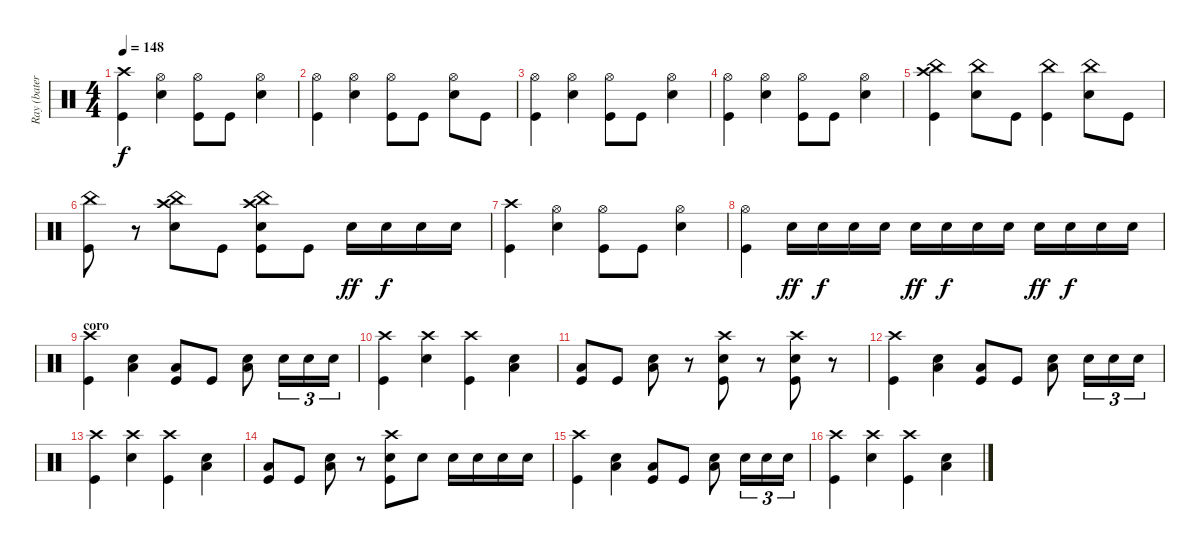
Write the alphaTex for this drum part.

\track ("Ray (batería)" "Ray (bater") {instrument percussion}
\staff {score}
\articulation defaults
\ts (4 4)
\tempo 148
\clef neutral
\ks c
("Crash high (hit)" "Kick (hit)").4{dy f} ("Hi-Hat (open)" "Snare (hit) 2").4 ("Hi-Hat (open)" "Kick (hit)").8 "Kick (hit)".8 ("Hi-Hat (open)" "Snare (hit) 2").4 |
("Hi-Hat (open)" "Kick (hit)").4 ("Hi-Hat (open)" "Snare (hit) 2").4 ("Hi-Hat (open)" "Kick (hit)").8 "Kick (hit)".8 ("Hi-Hat (open)" "Snare (hit) 2").8 "Kick (hit)".8 |
("Hi-Hat (open)" "Kick (hit)").4 ("Hi-Hat (open)" "Snare (hit) 2").4 ("Hi-Hat (open)" "Kick (hit)").8 "Kick (hit)".8 ("Hi-Hat (open)" "Snare (hit) 2").4 |
("Hi-Hat (open)" "Kick (hit)").4 ("Hi-Hat (open)" "Snare (hit) 2").4 ("Hi-Hat (open)" "Kick (hit)").8 "Kick (hit)".8 ("Hi-Hat (open)" "Snare (hit) 2").4 |
("China (hit)" "Crash high (hit)" "Kick (hit)").4 ("China (hit)" "Snare (hit) 2").8 "Kick (hit)".8 ("China (hit)" "Kick (hit)").4 ("China (hit)" "Snare (hit) 2").8 "Kick (hit)".8 |
("China (hit)" "Kick (hit)").8 r.8 ("China (hit)" "Crash high (hit)" "Snare (hit) 2").8 "Kick (hit)".8 ("China (hit)" "Crash high (hit)" "Snare (hit) 2" "Kick (hit)").8 "Kick (hit)".8 "Snare (hit) 2".16{dy ff} "Snare (hit) 2".16{dy f} "Snare (hit) 2".16 "Snare (hit) 2".16 |
("Crash high (hit)" "Kick (hit)").4 ("Hi-Hat (open)" "Snare (hit) 2").4 ("Hi-Hat (open)" "Kick (hit)").8 "Kick (hit)".8 ("Hi-Hat (open)" "Snare (hit) 2").4 |
("Hi-Hat (open)" "Kick (hit)").4 "Snare (hit) 2".16{dy ff} "Snare (hit) 2".16{dy f} "Snare (hit) 2".16 "Snare (hit) 2".16 "Snare (hit) 2".16{dy ff} "Snare (hit) 2".16{dy f} "Snare (hit) 2".16 "Snare (hit) 2".16 "Snare (hit) 2".16{dy ff} "Snare (hit) 2".16{dy f} "Snare (hit) 2".16 "Snare (hit) 2".16 |
\section ("" "coro")
("Crash high (hit)" "Kick (hit)").4 ("Snare (hit) 2" "Low Tom (hit)").4 ("Low Tom (hit)" "Kick (hit)").8 "Kick (hit)".8 ("Snare (hit) 2" "Low Tom (hit)").8 "Snare (hit) 2".16{tu (3 2)} "Snare (hit) 2".16{tu (3 2)} "Snare (hit) 2".16{tu (3 2)} |
("Crash high (hit)" "Kick (hit)").4 ("Crash high (hit)" "Snare (hit) 2").4 ("Crash high (hit)" "Kick (hit)").4 ("Snare (hit) 2" "Low Tom (hit)").4 |
("Low Tom (hit)" "Kick (hit)").8 "Kick (hit)".8 ("Snare (hit) 2" "Low Tom (hit)").8 r.8 ("Crash high (hit)" "Snare (hit) 2" "Kick (hit)").8 r.8 ("Crash high (hit)" "Snare (hit) 2" "Kick (hit)").8 r.8 |
("Crash high (hit)" "Kick (hit)").4 ("Snare (hit) 2" "Low Tom (hit)").4 ("Low Tom (hit)" "Kick (hit)").8 "Kick (hit)".8 ("Snare (hit) 2" "Low Tom (hit)").8 "Snare (hit) 2".16{tu (3 2)} "Snare (hit) 2".16{tu (3 2)} "Snare (hit) 2".16{tu (3 2)} |
("Crash high (hit)" "Kick (hit)").4 ("Crash high (hit)" "Snare (hit) 2").4 ("Crash high (hit)" "Kick (hit)").4 ("Snare (hit) 2" "Low Tom (hit)").4 |
("Low Tom (hit)" "Kick (hit)").8 "Kick (hit)".8 ("Snare (hit) 2" "Low Tom (hit)").8 r.8 ("Crash high (hit)" "Snare (hit) 2" "Kick (hit)").8 "Snare (hit) 2".8 "Snare (hit) 2".16 "Snare (hit) 2".16 "Snare (hit) 2".16 "Snare (hit) 2".16 |
("Crash high (hit)" "Kick (hit)").4 ("Snare (hit) 2" "Low Tom (hit)").4 ("Low Tom (hit)" "Kick (hit)").8 "Kick (hit)".8 ("Snare (hit) 2" "Low Tom (hit)").8 "Snare (hit) 2".16{tu (3 2)} "Snare (hit) 2".16{tu (3 2)} "Snare (hit) 2".16{tu (3 2)} |
("Crash high (hit)" "Kick (hit)").4 ("Crash high (hit)" "Snare (hit) 2").4 ("Crash high (hit)" "Kick (hit)").4 ("Snare (hit) 2" "Low Tom (hit)").4
